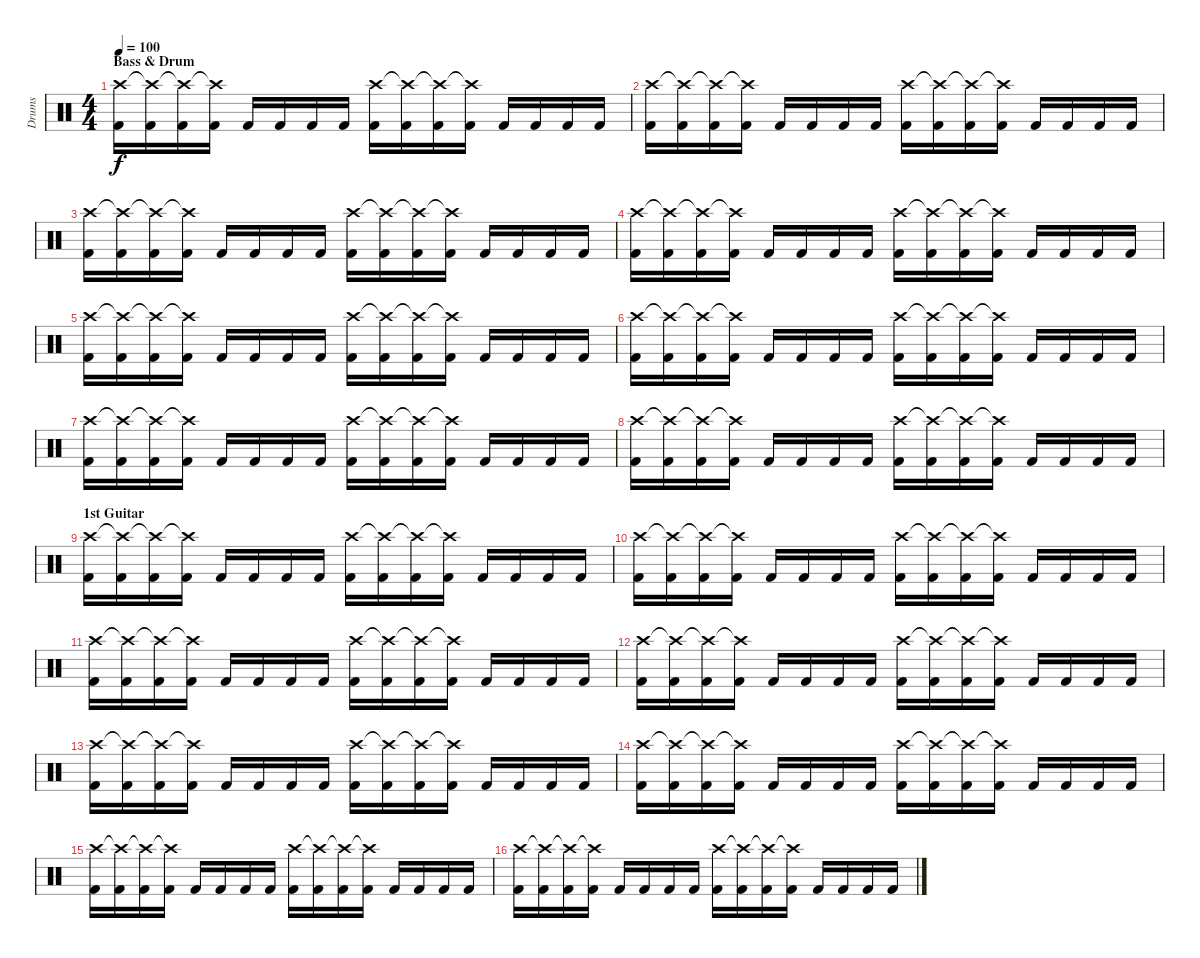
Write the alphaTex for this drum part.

\track ("Drums" "Drums") {instrument percussion}
\staff {score}
\articulation defaults
\ts (4 4)
\section ("" "Bass & Drum")
\tempo 100
\clef neutral
\ks c
("Crash high (hit)" "Kick (hit) 2").16{dy f} ("Crash high (hit)"{t} "Kick (hit) 2").16 ("Crash high (hit)"{t} "Kick (hit) 2").16 ("Crash high (hit)"{t} "Kick (hit) 2").16 "Kick (hit) 2".16 "Kick (hit) 2".16 "Kick (hit) 2".16 "Kick (hit) 2".16 ("Crash high (hit)" "Kick (hit) 2").16 ("Crash high (hit)"{t} "Kick (hit) 2").16 ("Crash high (hit)"{t} "Kick (hit) 2").16 ("Crash high (hit)"{t} "Kick (hit) 2").16 "Kick (hit) 2".16 "Kick (hit) 2".16 "Kick (hit) 2".16 "Kick (hit) 2".16 |
("Crash high (hit)" "Kick (hit) 2").16 ("Crash high (hit)"{t} "Kick (hit) 2").16 ("Crash high (hit)"{t} "Kick (hit) 2").16 ("Crash high (hit)"{t} "Kick (hit) 2").16 "Kick (hit) 2".16 "Kick (hit) 2".16 "Kick (hit) 2".16 "Kick (hit) 2".16 ("Crash high (hit)" "Kick (hit) 2").16 ("Crash high (hit)"{t} "Kick (hit) 2").16 ("Crash high (hit)"{t} "Kick (hit) 2").16 ("Crash high (hit)"{t} "Kick (hit) 2").16 "Kick (hit) 2".16 "Kick (hit) 2".16 "Kick (hit) 2".16 "Kick (hit) 2".16 |
("Crash high (hit)" "Kick (hit) 2").16 ("Crash high (hit)"{t} "Kick (hit) 2").16 ("Crash high (hit)"{t} "Kick (hit) 2").16 ("Crash high (hit)"{t} "Kick (hit) 2").16 "Kick (hit) 2".16 "Kick (hit) 2".16 "Kick (hit) 2".16 "Kick (hit) 2".16 ("Crash high (hit)" "Kick (hit) 2").16 ("Crash high (hit)"{t} "Kick (hit) 2").16 ("Crash high (hit)"{t} "Kick (hit) 2").16 ("Crash high (hit)"{t} "Kick (hit) 2").16 "Kick (hit) 2".16 "Kick (hit) 2".16 "Kick (hit) 2".16 "Kick (hit) 2".16 |
("Crash high (hit)" "Kick (hit) 2").16 ("Crash high (hit)"{t} "Kick (hit) 2").16 ("Crash high (hit)"{t} "Kick (hit) 2").16 ("Crash high (hit)"{t} "Kick (hit) 2").16 "Kick (hit) 2".16 "Kick (hit) 2".16 "Kick (hit) 2".16 "Kick (hit) 2".16 ("Crash high (hit)" "Kick (hit) 2").16 ("Crash high (hit)"{t} "Kick (hit) 2").16 ("Crash high (hit)"{t} "Kick (hit) 2").16 ("Crash high (hit)"{t} "Kick (hit) 2").16 "Kick (hit) 2".16 "Kick (hit) 2".16 "Kick (hit) 2".16 "Kick (hit) 2".16 |
("Crash high (hit)" "Kick (hit) 2").16 ("Crash high (hit)"{t} "Kick (hit) 2").16 ("Crash high (hit)"{t} "Kick (hit) 2").16 ("Crash high (hit)"{t} "Kick (hit) 2").16 "Kick (hit) 2".16 "Kick (hit) 2".16 "Kick (hit) 2".16 "Kick (hit) 2".16 ("Crash high (hit)" "Kick (hit) 2").16 ("Crash high (hit)"{t} "Kick (hit) 2").16 ("Crash high (hit)"{t} "Kick (hit) 2").16 ("Crash high (hit)"{t} "Kick (hit) 2").16 "Kick (hit) 2".16 "Kick (hit) 2".16 "Kick (hit) 2".16 "Kick (hit) 2".16 |
("Crash high (hit)" "Kick (hit) 2").16 ("Crash high (hit)"{t} "Kick (hit) 2").16 ("Crash high (hit)"{t} "Kick (hit) 2").16 ("Crash high (hit)"{t} "Kick (hit) 2").16 "Kick (hit) 2".16 "Kick (hit) 2".16 "Kick (hit) 2".16 "Kick (hit) 2".16 ("Crash high (hit)" "Kick (hit) 2").16 ("Crash high (hit)"{t} "Kick (hit) 2").16 ("Crash high (hit)"{t} "Kick (hit) 2").16 ("Crash high (hit)"{t} "Kick (hit) 2").16 "Kick (hit) 2".16 "Kick (hit) 2".16 "Kick (hit) 2".16 "Kick (hit) 2".16 |
("Crash high (hit)" "Kick (hit) 2").16 ("Crash high (hit)"{t} "Kick (hit) 2").16 ("Crash high (hit)"{t} "Kick (hit) 2").16 ("Crash high (hit)"{t} "Kick (hit) 2").16 "Kick (hit) 2".16 "Kick (hit) 2".16 "Kick (hit) 2".16 "Kick (hit) 2".16 ("Crash high (hit)" "Kick (hit) 2").16 ("Crash high (hit)"{t} "Kick (hit) 2").16 ("Crash high (hit)"{t} "Kick (hit) 2").16 ("Crash high (hit)"{t} "Kick (hit) 2").16 "Kick (hit) 2".16 "Kick (hit) 2".16 "Kick (hit) 2".16 "Kick (hit) 2".16 |
("Crash high (hit)" "Kick (hit) 2").16 ("Crash high (hit)"{t} "Kick (hit) 2").16 ("Crash high (hit)"{t} "Kick (hit) 2").16 ("Crash high (hit)"{t} "Kick (hit) 2").16 "Kick (hit) 2".16 "Kick (hit) 2".16 "Kick (hit) 2".16 "Kick (hit) 2".16 ("Crash high (hit)" "Kick (hit) 2").16 ("Crash high (hit)"{t} "Kick (hit) 2").16 ("Crash high (hit)"{t} "Kick (hit) 2").16 ("Crash high (hit)"{t} "Kick (hit) 2").16 "Kick (hit) 2".16 "Kick (hit) 2".16 "Kick (hit) 2".16 "Kick (hit) 2".16 |
\section ("" "1st Guitar")
("Crash high (hit)" "Kick (hit) 2").16 ("Crash high (hit)"{t} "Kick (hit) 2").16 ("Crash high (hit)"{t} "Kick (hit) 2").16 ("Crash high (hit)"{t} "Kick (hit) 2").16 "Kick (hit) 2".16 "Kick (hit) 2".16 "Kick (hit) 2".16 "Kick (hit) 2".16 ("Crash high (hit)" "Kick (hit) 2").16 ("Crash high (hit)"{t} "Kick (hit) 2").16 ("Crash high (hit)"{t} "Kick (hit) 2").16 ("Crash high (hit)"{t} "Kick (hit) 2").16 "Kick (hit) 2".16 "Kick (hit) 2".16 "Kick (hit) 2".16 "Kick (hit) 2".16 |
("Crash high (hit)" "Kick (hit) 2").16 ("Crash high (hit)"{t} "Kick (hit) 2").16 ("Crash high (hit)"{t} "Kick (hit) 2").16 ("Crash high (hit)"{t} "Kick (hit) 2").16 "Kick (hit) 2".16 "Kick (hit) 2".16 "Kick (hit) 2".16 "Kick (hit) 2".16 ("Crash high (hit)" "Kick (hit) 2").16 ("Crash high (hit)"{t} "Kick (hit) 2").16 ("Crash high (hit)"{t} "Kick (hit) 2").16 ("Crash high (hit)"{t} "Kick (hit) 2").16 "Kick (hit) 2".16 "Kick (hit) 2".16 "Kick (hit) 2".16 "Kick (hit) 2".16 |
("Crash high (hit)" "Kick (hit) 2").16 ("Crash high (hit)"{t} "Kick (hit) 2").16 ("Crash high (hit)"{t} "Kick (hit) 2").16 ("Crash high (hit)"{t} "Kick (hit) 2").16 "Kick (hit) 2".16 "Kick (hit) 2".16 "Kick (hit) 2".16 "Kick (hit) 2".16 ("Crash high (hit)" "Kick (hit) 2").16 ("Crash high (hit)"{t} "Kick (hit) 2").16 ("Crash high (hit)"{t} "Kick (hit) 2").16 ("Crash high (hit)"{t} "Kick (hit) 2").16 "Kick (hit) 2".16 "Kick (hit) 2".16 "Kick (hit) 2".16 "Kick (hit) 2".16 |
("Crash high (hit)" "Kick (hit) 2").16 ("Crash high (hit)"{t} "Kick (hit) 2").16 ("Crash high (hit)"{t} "Kick (hit) 2").16 ("Crash high (hit)"{t} "Kick (hit) 2").16 "Kick (hit) 2".16 "Kick (hit) 2".16 "Kick (hit) 2".16 "Kick (hit) 2".16 ("Crash high (hit)" "Kick (hit) 2").16 ("Crash high (hit)"{t} "Kick (hit) 2").16 ("Crash high (hit)"{t} "Kick (hit) 2").16 ("Crash high (hit)"{t} "Kick (hit) 2").16 "Kick (hit) 2".16 "Kick (hit) 2".16 "Kick (hit) 2".16 "Kick (hit) 2".16 |
("Crash high (hit)" "Kick (hit) 2").16 ("Crash high (hit)"{t} "Kick (hit) 2").16 ("Crash high (hit)"{t} "Kick (hit) 2").16 ("Crash high (hit)"{t} "Kick (hit) 2").16 "Kick (hit) 2".16 "Kick (hit) 2".16 "Kick (hit) 2".16 "Kick (hit) 2".16 ("Crash high (hit)" "Kick (hit) 2").16 ("Crash high (hit)"{t} "Kick (hit) 2").16 ("Crash high (hit)"{t} "Kick (hit) 2").16 ("Crash high (hit)"{t} "Kick (hit) 2").16 "Kick (hit) 2".16 "Kick (hit) 2".16 "Kick (hit) 2".16 "Kick (hit) 2".16 |
("Crash high (hit)" "Kick (hit) 2").16 ("Crash high (hit)"{t} "Kick (hit) 2").16 ("Crash high (hit)"{t} "Kick (hit) 2").16 ("Crash high (hit)"{t} "Kick (hit) 2").16 "Kick (hit) 2".16 "Kick (hit) 2".16 "Kick (hit) 2".16 "Kick (hit) 2".16 ("Crash high (hit)" "Kick (hit) 2").16 ("Crash high (hit)"{t} "Kick (hit) 2").16 ("Crash high (hit)"{t} "Kick (hit) 2").16 ("Crash high (hit)"{t} "Kick (hit) 2").16 "Kick (hit) 2".16 "Kick (hit) 2".16 "Kick (hit) 2".16 "Kick (hit) 2".16 |
("Crash high (hit)" "Kick (hit) 2").16 ("Crash high (hit)"{t} "Kick (hit) 2").16 ("Crash high (hit)"{t} "Kick (hit) 2").16 ("Crash high (hit)"{t} "Kick (hit) 2").16 "Kick (hit) 2".16 "Kick (hit) 2".16 "Kick (hit) 2".16 "Kick (hit) 2".16 ("Crash high (hit)" "Kick (hit) 2").16 ("Crash high (hit)"{t} "Kick (hit) 2").16 ("Crash high (hit)"{t} "Kick (hit) 2").16 ("Crash high (hit)"{t} "Kick (hit) 2").16 "Kick (hit) 2".16 "Kick (hit) 2".16 "Kick (hit) 2".16 "Kick (hit) 2".16 |
("Crash high (hit)" "Kick (hit) 2").16 ("Crash high (hit)"{t} "Kick (hit) 2").16 ("Crash high (hit)"{t} "Kick (hit) 2").16 ("Crash high (hit)"{t} "Kick (hit) 2").16 "Kick (hit) 2".16 "Kick (hit) 2".16 "Kick (hit) 2".16 "Kick (hit) 2".16 ("Crash high (hit)" "Kick (hit) 2").16 ("Crash high (hit)"{t} "Kick (hit) 2").16 ("Crash high (hit)"{t} "Kick (hit) 2").16 ("Crash high (hit)"{t} "Kick (hit) 2").16 "Kick (hit) 2".16 "Kick (hit) 2".16 "Kick (hit) 2".16 "Kick (hit) 2".16
